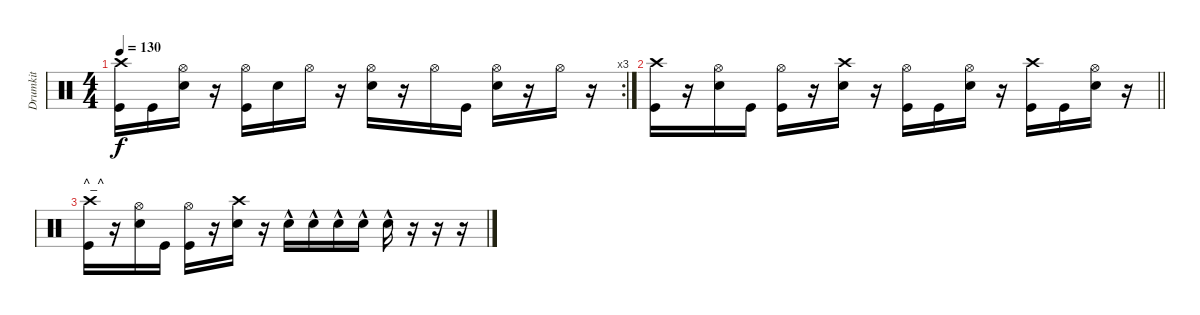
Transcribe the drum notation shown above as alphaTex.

\track ("Drumkit" "Drumkit") {instrument percussion}
\staff {score}
\articulation defaults
\rc 3
\ts (4 4)
\tempo 130
\clef neutral
\ks c
("Crash high (hit)" "Kick (hit)").16{dy f} "Kick (hit)".16 ("Hi-Hat (open)" "Snare (hit) 2").16 r.16 ("Hi-Hat (open)" "Kick (hit)").16 "Snare (hit) 2".16 "Hi-Hat (open)".16 r.16 ("Hi-Hat (open)" "Snare (hit) 2").16 r.16 "Hi-Hat (open)".16 "Kick (hit)".16 ("Hi-Hat (open)" "Snare (hit) 2").16 r.16 "Hi-Hat (open)".16 r.16 |
\barLineRight lightlight
("Crash high (hit)" "Kick (hit)").16 r.16 ("Snare (hit) 2" "Hi-Hat (open)").16 "Kick (hit)".16 ("Hi-Hat (open)" "Kick (hit)").16 r.16 ("Snare (hit) 2" "Crash high (hit)").16 r.16 ("Hi-Hat (open)" "Kick (hit)").16 "Kick (hit)".16 ("Hi-Hat (open)" "Snare (hit) 2").16 r.16 ("Kick (hit)" "Crash high (hit)").16 "Kick (hit)".16 ("Hi-Hat (open)" "Snare (hit) 2").16 r.16 |
\section ("" "^_^")
("Crash high (hit)" "Kick (hit)").16 r.16 ("Snare (hit) 2" "Hi-Hat (open)").16 "Kick (hit)".16 ("Hi-Hat (open)" "Kick (hit)").16 r.16 ("Snare (hit) 2" "Crash high (hit)").16 r.16 "Snare (hit) 2"{hac}.16 "Snare (hit) 2"{hac}.16 "Snare (hit) 2"{hac}.16 "Snare (hit) 2"{hac}.16 "Snare (hit) 2"{hac}.16 r.16 r.16 r.16
